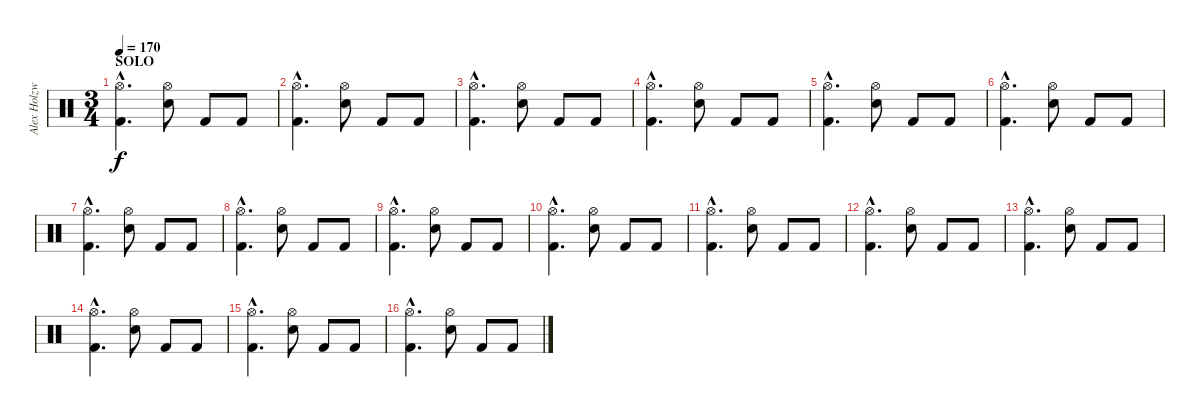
\track ("Alex Holzwarth - Drums" "Alex Holzw") {instrument percussion}
\staff {score}
\articulation defaults
\ts (3 4)
\section ("" "SOLO")
\tempo 170
\clef neutral
\ks c
("Hi-Hat (open)"{hac} "Kick (hit) 2"{hac}).4{d dy f} ("Hi-Hat (open)" "Snare (hit) 2").8 "Kick (hit) 2".8 "Kick (hit) 2".8 |
("Hi-Hat (open)"{hac} "Kick (hit) 2"{hac}).4{d} ("Hi-Hat (open)" "Snare (hit) 2").8 "Kick (hit) 2".8 "Kick (hit) 2".8 |
("Hi-Hat (open)"{hac} "Kick (hit) 2"{hac}).4{d} ("Hi-Hat (open)" "Snare (hit) 2").8 "Kick (hit) 2".8 "Kick (hit) 2".8 |
("Hi-Hat (open)"{hac} "Kick (hit) 2"{hac}).4{d} ("Hi-Hat (open)" "Snare (hit) 2").8 "Kick (hit) 2".8 "Kick (hit) 2".8 |
("Hi-Hat (open)"{hac} "Kick (hit) 2"{hac}).4{d} ("Hi-Hat (open)" "Snare (hit) 2").8 "Kick (hit) 2".8 "Kick (hit) 2".8 |
("Hi-Hat (open)"{hac} "Kick (hit) 2"{hac}).4{d} ("Hi-Hat (open)" "Snare (hit) 2").8 "Kick (hit) 2".8 "Kick (hit) 2".8 |
("Hi-Hat (open)"{hac} "Kick (hit) 2"{hac}).4{d} ("Hi-Hat (open)" "Snare (hit) 2").8 "Kick (hit) 2".8 "Kick (hit) 2".8 |
("Hi-Hat (open)"{hac} "Kick (hit) 2"{hac}).4{d} ("Hi-Hat (open)" "Snare (hit) 2").8 "Kick (hit) 2".8 "Kick (hit) 2".8 |
("Hi-Hat (open)"{hac} "Kick (hit) 2"{hac}).4{d} ("Hi-Hat (open)" "Snare (hit) 2").8 "Kick (hit) 2".8 "Kick (hit) 2".8 |
("Hi-Hat (open)"{hac} "Kick (hit) 2"{hac}).4{d} ("Hi-Hat (open)" "Snare (hit) 2").8 "Kick (hit) 2".8 "Kick (hit) 2".8 |
("Hi-Hat (open)"{hac} "Kick (hit) 2"{hac}).4{d} ("Hi-Hat (open)" "Snare (hit) 2").8 "Kick (hit) 2".8 "Kick (hit) 2".8 |
("Hi-Hat (open)"{hac} "Kick (hit) 2"{hac}).4{d} ("Hi-Hat (open)" "Snare (hit) 2").8 "Kick (hit) 2".8 "Kick (hit) 2".8 |
("Hi-Hat (open)"{hac} "Kick (hit) 2"{hac}).4{d} ("Hi-Hat (open)" "Snare (hit) 2").8 "Kick (hit) 2".8 "Kick (hit) 2".8 |
("Hi-Hat (open)"{hac} "Kick (hit) 2"{hac}).4{d} ("Hi-Hat (open)" "Snare (hit) 2").8 "Kick (hit) 2".8 "Kick (hit) 2".8 |
("Hi-Hat (open)"{hac} "Kick (hit) 2"{hac}).4{d} ("Hi-Hat (open)" "Snare (hit) 2").8 "Kick (hit) 2".8 "Kick (hit) 2".8 |
("Hi-Hat (open)"{hac} "Kick (hit) 2"{hac}).4{d} ("Hi-Hat (open)" "Snare (hit) 2").8 "Kick (hit) 2".8 "Kick (hit) 2".8
